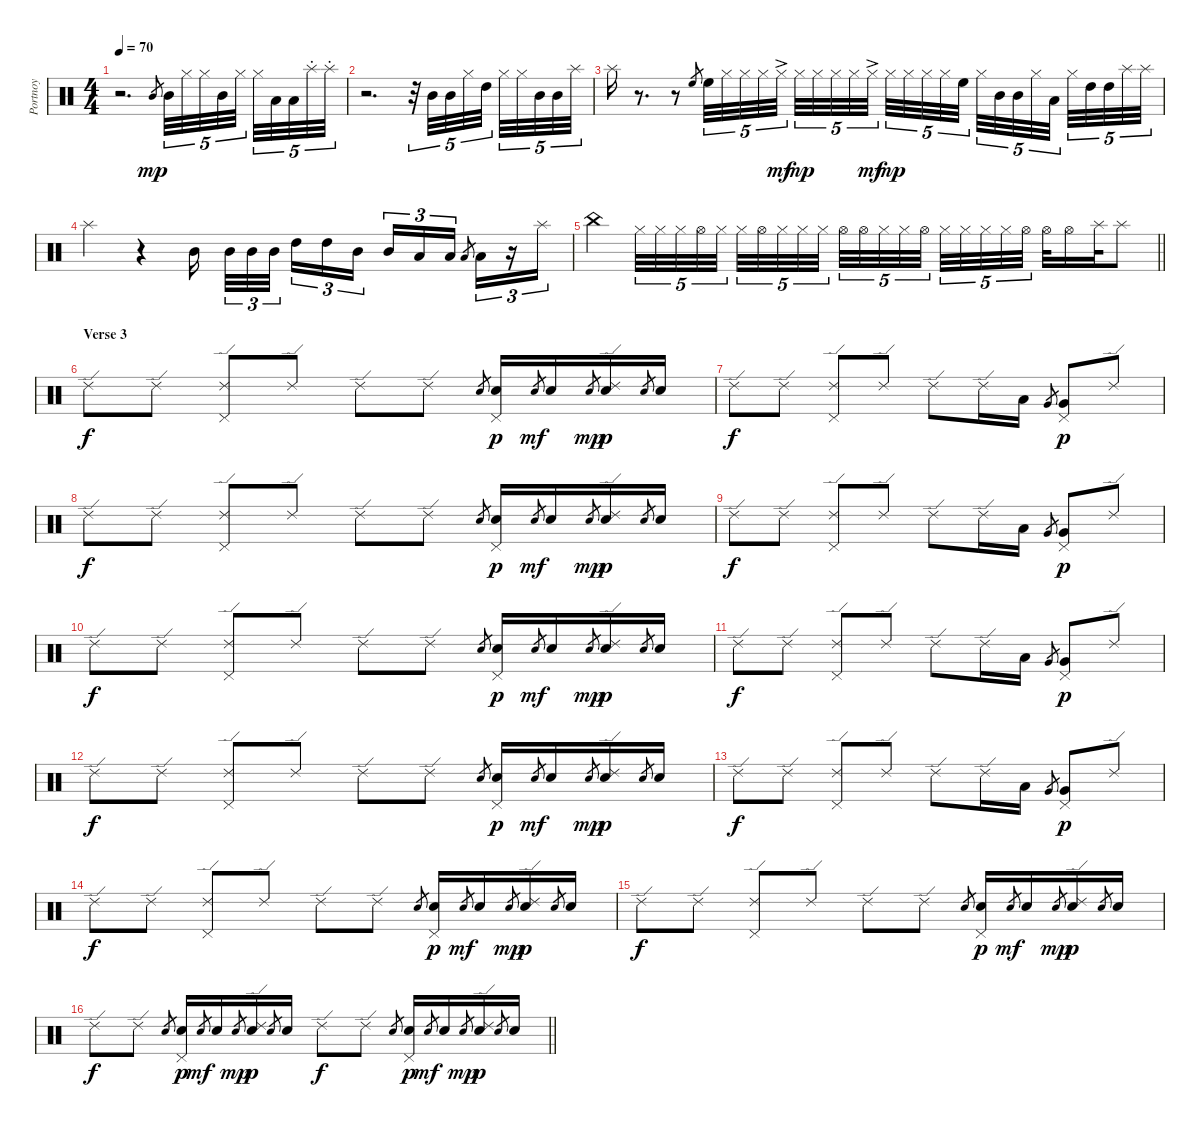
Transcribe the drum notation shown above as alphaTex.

\track ("Portnoy" "Portnoy") {instrument percussion}
\staff {score}
\articulation defaults
\ts (4 4)
\tempo 70
\clef neutral
\ks c
r.2{d dy mp} "Mid Tom (hit)".8{gr} "Mid Tom (hit)".32{tu (5 4)} "Hi-Hat (closed)".32{tu (5 4)} "Hi-Hat (closed)".32{tu (5 4)} "Mid Tom (hit)".32{tu (5 4)} "Hi-Hat (closed)".32{tu (5 4) beam splitsecondary} "Hi-Hat (closed)".32{tu (5 4)} "Low Tom (hit)".32{tu (5 4)} "Low Tom (hit)".32{tu (5 4)} "Splash (hit)"{st}.32{tu (5 4)} "Splash (hit)"{st}.32{tu (5 4)} |
r.2{d} r.32{tu (5 4)} "Mid Tom (hit)".32{tu (5 4)} "Mid Tom (hit)".32{tu (5 4)} "Hi-Hat (closed)".32{tu (5 4)} "High Tom (hit)".32{tu (5 4) beam splitsecondary} "Hi-Hat (closed)".32{tu (5 4)} "Hi-Hat (closed)".32{tu (5 4)} "Mid Tom (hit)".32{tu (5 4)} "Mid Tom (hit)".32{tu (5 4)} "Splash (hit)".32{tu (5 4)} |
"Splash (hit)".16 r.8{d} r.8 "High Floor Tom (hit)".8{gr} "High Floor Tom (hit)".32{tu (5 4)} "Hi-Hat (closed)".32{tu (5 4)} "Hi-Hat (closed)".32{tu (5 4)} "Hi-Hat (closed)".32{tu (5 4)} "Hi-Hat (closed)"{ac}.32{tu (5 4) dy mf} "Hi-Hat (closed)".32{tu (5 4) dy mp} "Hi-Hat (closed)".32{tu (5 4)} "Hi-Hat (closed)".32{tu (5 4)} "Hi-Hat (closed)".32{tu (5 4)} "Hi-Hat (closed)"{ac}.32{tu (5 4) dy mf beam splitsecondary} "Hi-Hat (closed)".32{tu (5 4) dy mp} "Hi-Hat (closed)".32{tu (5 4)} "Hi-Hat (closed)".32{tu (5 4)} "Hi-Hat (closed)".32{tu (5 4)} "High Floor Tom (hit)".32{tu (5 4)} "Hi-Hat (closed)".32{tu (5 4)} "Mid Tom (hit)".32{tu (5 4)} "Mid Tom (hit)".32{tu (5 4)} "Hi-Hat (closed)".32{tu (5 4)} "Low Tom (hit)".32{tu (5 4) beam splitsecondary} "Hi-Hat (closed)".32{tu (5 4)} "High Tom (hit)".32{tu (5 4)} "High Tom (hit)".32{tu (5 4)} "Splash (hit)".32{tu (5 4)} "Splash (hit)".32{tu (5 4)} |
"Splash (hit)".4 r.4 "Mid Tom (hit)".16{beam splitsecondary} "Mid Tom (hit)".32{tu (3 2)} "Mid Tom (hit)".32{tu (3 2)} "Mid Tom (hit)".32{tu (3 2) beam splitsecondary} "High Tom (hit)".16{tu (3 2)} "High Tom (hit)".16{tu (3 2)} "Mid Tom (hit)".16{tu (3 2)} "Mid Tom (hit)".16{tu (3 2)} "Low Tom (hit)".16{tu (3 2)} "Low Tom (hit)".16{tu (3 2)} "Low Tom (hit)".8{gr beam splitsecondary} "Low Tom (hit)".16{tu (3 2)} r.16{tu (3 2)} "Splash (hit)".16{tu (3 2)} |
\barLineRight lightlight "China (hit)".4 "Hi-Hat (closed)".32{tu (5 4)} "Hi-Hat (closed)".32{tu (5 4)} "Hi-Hat (closed)".32{tu (5 4)} "Hi-Hat (open)".32{tu (5 4)} "Hi-Hat (closed)".32{tu (5 4) beam splitsecondary} "Hi-Hat (closed)".32{tu (5 4)} "Hi-Hat (open)".32{tu (5 4)} "Hi-Hat (closed)".32{tu (5 4)} "Hi-Hat (closed)".32{tu (5 4)} "Hi-Hat (closed)".32{tu (5 4)} "Hi-Hat (open)".32{tu (5 4)} "Hi-Hat (open)".32{tu (5 4)} "Hi-Hat (closed)".32{tu (5 4)} "Hi-Hat (closed)".32{tu (5 4)} "Hi-Hat (open)".32{tu (5 4) beam splitsecondary} "Hi-Hat (closed)".32{tu (5 4)} "Hi-Hat (closed)".32{tu (5 4)} "Hi-Hat (closed)".32{tu (5 4)} "Hi-Hat (closed)".32{tu (5 4)} "Hi-Hat (open)".32{tu (5 4)} "Hi-Hat (open)".32 "Hi-Hat (open)".16 "Splash (hit)".32 "Splash (hit)".8
|
\section ("" "Verse 3")
"Ride (edge) 2".8{dy f} "Ride (edge) 2".8 ("Ride (edge) 2" "Pedal Hi-Hat (hit)").8 "Ride (edge) 2".8 "Ride (edge) 2".8 "Ride (edge) 2".8 "Snare (hit) 2".8{gr} ("Snare (hit) 2" "Pedal Hi-Hat (hit)").16{dy p} "Snare (hit) 2".8{gr dy mf} "Snare (hit) 2".16 "Snare (hit) 2".8{gr dy mp} ("Snare (hit) 2" "Ride (edge) 2").16{dy p} "Snare (hit) 2".8{gr} "Snare (hit) 2".16 |
"Ride (edge) 2".8{dy f} "Ride (edge) 2".8 ("Ride (edge) 2" "Pedal Hi-Hat (hit)").8 "Ride (edge) 2".8 "Ride (edge) 2".8 "Ride (edge) 2".16 "Low Tom (hit)".16 "Very Low Tom (hit)".8{gr} ("Very Low Tom (hit)" "Pedal Hi-Hat (hit)").8{dy p} "Ride (edge) 2".8 |
"Ride (edge) 2".8{dy f} "Ride (edge) 2".8 ("Ride (edge) 2" "Pedal Hi-Hat (hit)").8 "Ride (edge) 2".8 "Ride (edge) 2".8 "Ride (edge) 2".8 "Snare (hit) 2".8{gr} ("Snare (hit) 2" "Pedal Hi-Hat (hit)").16{dy p} "Snare (hit) 2".8{gr dy mf} "Snare (hit) 2".16 "Snare (hit) 2".8{gr dy mp} ("Snare (hit) 2" "Ride (edge) 2").16{dy p} "Snare (hit) 2".8{gr} "Snare (hit) 2".16 |
"Ride (edge) 2".8{dy f} "Ride (edge) 2".8 ("Ride (edge) 2" "Pedal Hi-Hat (hit)").8 "Ride (edge) 2".8 "Ride (edge) 2".8 "Ride (edge) 2".16 "Low Tom (hit)".16 "Very Low Tom (hit)".8{gr} ("Very Low Tom (hit)" "Pedal Hi-Hat (hit)").8{dy p} "Ride (edge) 2".8 |
"Ride (edge) 2".8{dy f} "Ride (edge) 2".8 ("Ride (edge) 2" "Pedal Hi-Hat (hit)").8 "Ride (edge) 2".8 "Ride (edge) 2".8 "Ride (edge) 2".8 "Snare (hit) 2".8{gr} ("Snare (hit) 2" "Pedal Hi-Hat (hit)").16{dy p} "Snare (hit) 2".8{gr dy mf} "Snare (hit) 2".16 "Snare (hit) 2".8{gr dy mp} ("Snare (hit) 2" "Ride (edge) 2").16{dy p} "Snare (hit) 2".8{gr} "Snare (hit) 2".16 |
"Ride (edge) 2".8{dy f} "Ride (edge) 2".8 ("Ride (edge) 2" "Pedal Hi-Hat (hit)").8 "Ride (edge) 2".8 "Ride (edge) 2".8 "Ride (edge) 2".16 "Low Tom (hit)".16 "Very Low Tom (hit)".8{gr} ("Very Low Tom (hit)" "Pedal Hi-Hat (hit)").8{dy p} "Ride (edge) 2".8 |
"Ride (edge) 2".8{dy f} "Ride (edge) 2".8 ("Ride (edge) 2" "Pedal Hi-Hat (hit)").8 "Ride (edge) 2".8 "Ride (edge) 2".8 "Ride (edge) 2".8 "Snare (hit) 2".8{gr} ("Snare (hit) 2" "Pedal Hi-Hat (hit)").16{dy p} "Snare (hit) 2".8{gr dy mf} "Snare (hit) 2".16 "Snare (hit) 2".8{gr dy mp} ("Snare (hit) 2" "Ride (edge) 2").16{dy p} "Snare (hit) 2".8{gr} "Snare (hit) 2".16 |
"Ride (edge) 2".8{dy f} "Ride (edge) 2".8 ("Ride (edge) 2" "Pedal Hi-Hat (hit)").8 "Ride (edge) 2".8 "Ride (edge) 2".8 "Ride (edge) 2".16 "Low Tom (hit)".16 "Very Low Tom (hit)".8{gr} ("Very Low Tom (hit)" "Pedal Hi-Hat (hit)").8{dy p} "Ride (edge) 2".8 |
"Ride (edge) 2".8{dy f} "Ride (edge) 2".8 ("Ride (edge) 2" "Pedal Hi-Hat (hit)").8 "Ride (edge) 2".8 "Ride (edge) 2".8 "Ride (edge) 2".8 "Snare (hit) 2".8{gr} ("Snare (hit) 2" "Pedal Hi-Hat (hit)").16{dy p} "Snare (hit) 2".8{gr dy mf} "Snare (hit) 2".16 "Snare (hit) 2".8{gr dy mp} ("Snare (hit) 2" "Ride (edge) 2").16{dy p} "Snare (hit) 2".8{gr} "Snare (hit) 2".16 |
"Ride (edge) 2".8{dy f} "Ride (edge) 2".8 ("Ride (edge) 2" "Pedal Hi-Hat (hit)").8 "Ride (edge) 2".8 "Ride (edge) 2".8 "Ride (edge) 2".8 "Snare (hit) 2".8{gr} ("Snare (hit) 2" "Pedal Hi-Hat (hit)").16{dy p} "Snare (hit) 2".8{gr dy mf} "Snare (hit) 2".16 "Snare (hit) 2".8{gr dy mp} ("Snare (hit) 2" "Ride (edge) 2").16{dy p} "Snare (hit) 2".8{gr} "Snare (hit) 2".16 |
\barLineRight lightlight "Ride (edge) 2".8{dy f} "Ride (edge) 2".8 "Snare (hit) 2".8{gr}
("Snare (hit) 2" "Pedal Hi-Hat (hit)").16{dy p} "Snare (hit) 2".8{gr dy mf} "Snare (hit) 2".16 "Snare (hit) 2".8{gr dy mp} ("Snare (hit) 2" "Ride (edge) 2").16{dy p} "Snare (hit) 2".8{gr} "Snare (hit) 2".16 "Ride (edge) 2".8{dy f} "Ride (edge) 2".8 "Snare (hit) 2".8{gr} ("Snare (hit) 2" "Pedal Hi-Hat (hit)").16{dy p} "Snare (hit) 2".8{gr dy mf} "Snare (hit) 2".16 "Snare (hit) 2".8{gr dy mp} ("Snare (hit) 2" "Ride (edge) 2").16{dy p} "Snare (hit) 2".8{gr} "Snare (hit) 2".16
